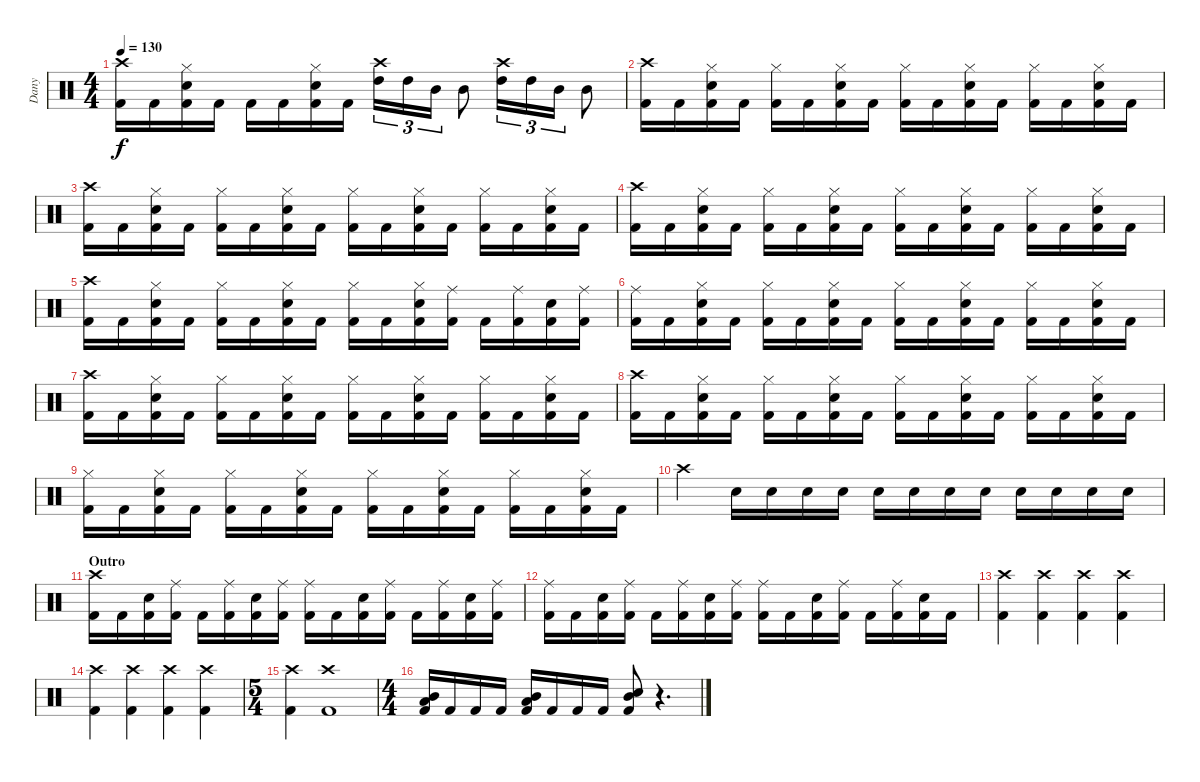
\track ("Dany" "Dany") {instrument percussion}
\staff {score}
\articulation defaults
\ts (4 4)
\tempo 130
\clef neutral
\ks c
("Kick (hit) 2" "Crash high (hit)").16{dy f} "Kick (hit) 2".16 ("Kick (hit) 2" "Electric Snare (hit)" "Hi-Hat (closed)").16 "Kick (hit) 2".16 "Kick (hit) 2".16 "Kick (hit) 2".16 ("Kick (hit) 2" "Electric Snare (hit)" "Hi-Hat (closed)").16 "Kick (hit) 2".16 ("High Tom (hit)" "Crash high (hit)").16{tu (3 2)} "High Tom (hit)".16{tu (3 2)} "Mid Tom (hit)".16{tu (3 2)} "Mid Tom (hit)".8 ("High Tom (hit)" "Crash high (hit)").16{tu (3 2)} "High Tom (hit)".16{tu (3 2)} "Mid Tom (hit)".16{tu (3 2)} "Mid Tom (hit)".8 |
("Kick (hit) 2" "Crash high (hit)").16 "Kick (hit) 2".16 ("Kick (hit) 2" "Electric Snare (hit)" "Hi-Hat (closed)").16 "Kick (hit) 2".16 ("Kick (hit) 2" "Hi-Hat (closed)").16 "Kick (hit) 2".16 ("Kick (hit) 2" "Electric Snare (hit)" "Hi-Hat (closed)").16 "Kick (hit) 2".16 ("Kick (hit) 2" "Hi-Hat (closed)").16 "Kick (hit) 2".16 ("Kick (hit) 2" "Electric Snare (hit)" "Hi-Hat (closed)").16 "Kick (hit) 2".16 ("Kick (hit) 2" "Hi-Hat (closed)").16 "Kick (hit) 2".16 ("Kick (hit) 2" "Electric Snare (hit)" "Hi-Hat (closed)").16 "Kick (hit) 2".16 |
("Kick (hit) 2" "Crash high (hit)").16 "Kick (hit) 2".16 ("Kick (hit) 2" "Electric Snare (hit)" "Hi-Hat (closed)").16 "Kick (hit) 2".16 ("Kick (hit) 2" "Hi-Hat (closed)").16 "Kick (hit) 2".16 ("Kick (hit) 2" "Electric Snare (hit)" "Hi-Hat (closed)").16 "Kick (hit) 2".16 ("Kick (hit) 2" "Hi-Hat (closed)").16 "Kick (hit) 2".16 ("Kick (hit) 2" "Electric Snare (hit)" "Hi-Hat (closed)").16 "Kick (hit) 2".16 ("Kick (hit) 2" "Hi-Hat (closed)").16 "Kick (hit) 2".16 ("Kick (hit) 2" "Electric Snare (hit)" "Hi-Hat (closed)").16 "Kick (hit) 2".16 |
("Kick (hit) 2" "Crash high (hit)").16 "Kick (hit) 2".16 ("Kick (hit) 2" "Electric Snare (hit)" "Hi-Hat (closed)").16 "Kick (hit) 2".16 ("Kick (hit) 2" "Hi-Hat (closed)").16 "Kick (hit) 2".16 ("Kick (hit) 2" "Electric Snare (hit)" "Hi-Hat (closed)").16 "Kick (hit) 2".16 ("Kick (hit) 2" "Hi-Hat (closed)").16 "Kick (hit) 2".16 ("Kick (hit) 2" "Electric Snare (hit)" "Hi-Hat (closed)").16 "Kick (hit) 2".16 ("Kick (hit) 2" "Hi-Hat (closed)").16 "Kick (hit) 2".16 ("Kick (hit) 2" "Electric Snare (hit)" "Hi-Hat (closed)").16 "Kick (hit) 2".16 |
("Kick (hit) 2" "Crash high (hit)").16 "Kick (hit) 2".16 ("Kick (hit) 2" "Electric Snare (hit)" "Hi-Hat (closed)").16 "Kick (hit) 2".16 ("Kick (hit) 2" "Hi-Hat (closed)").16 "Kick (hit) 2".16 ("Kick (hit) 2" "Electric Snare (hit)" "Hi-Hat (closed)").16 "Kick (hit) 2".16 ("Kick (hit) 2" "Hi-Hat (closed)").16 "Kick (hit) 2".16 ("Kick (hit) 2" "Electric Snare (hit)" "Hi-Hat (closed)").16 ("Kick (hit) 2" "Ride (middle)").16 "Kick (hit) 2".16 ("Kick (hit) 2" "Ride (middle)").16 ("Kick (hit) 2" "Electric Snare (hit)").16 ("Kick (hit) 2" "Ride (middle)").16 |
("Kick (hit) 2" "Ride (middle)").16 "Kick (hit) 2".16 ("Kick (hit) 2" "Electric Snare (hit)" "Hi-Hat (closed)").16 "Kick (hit) 2".16 ("Kick (hit) 2" "Hi-Hat (closed)").16 "Kick (hit) 2".16 ("Kick (hit) 2" "Electric Snare (hit)" "Hi-Hat (closed)").16 "Kick (hit) 2".16 ("Kick (hit) 2" "Hi-Hat (closed)").16 "Kick (hit) 2".16 ("Kick (hit) 2" "Electric Snare (hit)" "Hi-Hat (closed)").16 "Kick (hit) 2".16 ("Kick (hit) 2" "Hi-Hat (closed)").16 "Kick (hit) 2".16 ("Kick (hit) 2" "Electric Snare (hit)" "Hi-Hat (closed)").16 "Kick (hit) 2".16 |
("Kick (hit) 2" "Crash high (hit)").16 "Kick (hit) 2".16 ("Kick (hit) 2" "Electric Snare (hit)" "Hi-Hat (closed)").16 "Kick (hit) 2".16 ("Kick (hit) 2" "Hi-Hat (closed)").16 "Kick (hit) 2".16 ("Kick (hit) 2" "Electric Snare (hit)" "Hi-Hat (closed)").16 "Kick (hit) 2".16 ("Kick (hit) 2" "Hi-Hat (closed)").16 "Kick (hit) 2".16 ("Kick (hit) 2" "Electric Snare (hit)" "Hi-Hat (closed)").16 "Kick (hit) 2".16 ("Kick (hit) 2" "Hi-Hat (closed)").16 "Kick (hit) 2".16 ("Kick (hit) 2" "Electric Snare (hit)" "Hi-Hat (closed)").16 "Kick (hit) 2".16 |
("Kick (hit) 2" "Crash high (hit)").16 "Kick (hit) 2".16 ("Kick (hit) 2" "Electric Snare (hit)" "Hi-Hat (closed)").16 "Kick (hit) 2".16 ("Kick (hit) 2" "Hi-Hat (closed)").16 "Kick (hit) 2".16 ("Kick (hit) 2" "Electric Snare (hit)" "Hi-Hat (closed)").16 "Kick (hit) 2".16 ("Kick (hit) 2" "Hi-Hat (closed)").16 "Kick (hit) 2".16 ("Kick (hit) 2" "Electric Snare (hit)" "Hi-Hat (closed)").16 "Kick (hit) 2".16 ("Kick (hit) 2" "Hi-Hat (closed)").16 "Kick (hit) 2".16 ("Kick (hit) 2" "Electric Snare (hit)" "Hi-Hat (closed)").16 "Kick (hit) 2".16 |
("Kick (hit) 2" "Hi-Hat (closed)").16 "Kick (hit) 2".16 ("Kick (hit) 2" "Electric Snare (hit)" "Hi-Hat (closed)").16 "Kick (hit) 2".16 ("Kick (hit) 2" "Hi-Hat (closed)").16 "Kick (hit) 2".16 ("Kick (hit) 2" "Electric Snare (hit)" "Hi-Hat (closed)").16 "Kick (hit) 2".16 ("Kick (hit) 2" "Hi-Hat (closed)").16 "Kick (hit) 2".16 ("Kick (hit) 2" "Electric Snare (hit)" "Hi-Hat (closed)").16 "Kick (hit) 2".16 ("Kick (hit) 2" "Hi-Hat (closed)").16 "Kick (hit) 2".16 ("Kick (hit) 2" "Electric Snare (hit)" "Hi-Hat (closed)").16 "Kick (hit) 2".16 |
"Crash high (hit)".4 "Electric Snare (hit)".16 "Electric Snare (hit)".16 "Electric Snare (hit)".16 "Electric Snare (hit)".16 "Electric Snare (hit)".16 "Electric Snare (hit)".16 "Electric Snare (hit)".16 "Electric Snare (hit)".16 "Electric Snare (hit)".16 "Electric Snare (hit)".16 "Electric Snare (hit)".16 "Electric Snare (hit)".16 |
\section ("" "Outro")
("Kick (hit) 2" "Crash high (hit)").16 "Kick (hit) 2".16 ("Kick (hit) 2" "Electric Snare (hit)").16 ("Kick (hit) 2" "Ride (middle)").16 "Kick (hit) 2".16 ("Kick (hit) 2" "Ride (middle)").16 ("Kick (hit) 2" "Electric Snare (hit)").16 ("Kick (hit) 2" "Ride (middle)").16 ("Kick (hit) 2" "Ride (middle)").16 "Kick (hit) 2".16 ("Kick (hit) 2" "Electric Snare (hit)").16 ("Kick (hit) 2" "Ride (middle)").16 "Kick (hit) 2".16 ("Kick (hit) 2" "Ride (middle)").16 ("Kick (hit) 2" "Electric Snare (hit)").16 ("Kick (hit) 2" "Ride (middle)").16 |
("Kick (hit) 2" "Ride (middle)").16 "Kick (hit) 2".16 ("Kick (hit) 2" "Electric Snare (hit)").16 ("Kick (hit) 2" "Ride (middle)").16 "Kick (hit) 2".16 ("Kick (hit) 2" "Ride (middle)").16 ("Kick (hit) 2" "Electric Snare (hit)").16 ("Kick (hit) 2" "Ride (middle)").16 ("Kick (hit) 2" "Ride (middle)").16 "Kick (hit) 2".16 ("Kick (hit) 2" "Electric Snare (hit)").16 ("Kick (hit) 2" "Ride (middle)").16 "Kick (hit) 2".16 ("Kick (hit) 2" "Ride (middle)").16 ("Kick (hit) 2" "Electric Snare (hit)").16 "Kick (hit) 2".16 |
("Kick (hit) 2" "Crash high (hit)").4 ("Kick (hit) 2" "Crash high (hit)").4 ("Kick (hit) 2" "Crash high (hit)").4 ("Kick (hit) 2" "Crash high (hit)").4 |
("Kick (hit) 2" "Crash high (hit)").4 ("Kick (hit) 2" "Crash high (hit)").4 ("Kick (hit) 2" "Crash high (hit)").4 ("Kick (hit) 2" "Crash high (hit)").4 |
\ts (5 4)
("Kick (hit) 2" "Crash high (hit)").4 ("Kick (hit) 2" "Crash high (hit)").1 |
\ts (4 4)
("Kick (hit) 2" "Mid Tom (hit)" "Low Tom (hit)").16 "Kick (hit) 2".16 "Kick (hit) 2".16 "Kick (hit) 2".16 ("Kick (hit) 2" "Mid Tom (hit)" "Low Tom (hit)").16 "Kick (hit) 2".16 "Kick (hit) 2".16 "Kick (hit) 2".16 ("Kick (hit) 2" "Electric Snare (hit)" "Mid Tom (hit)").8 r.4{d}
